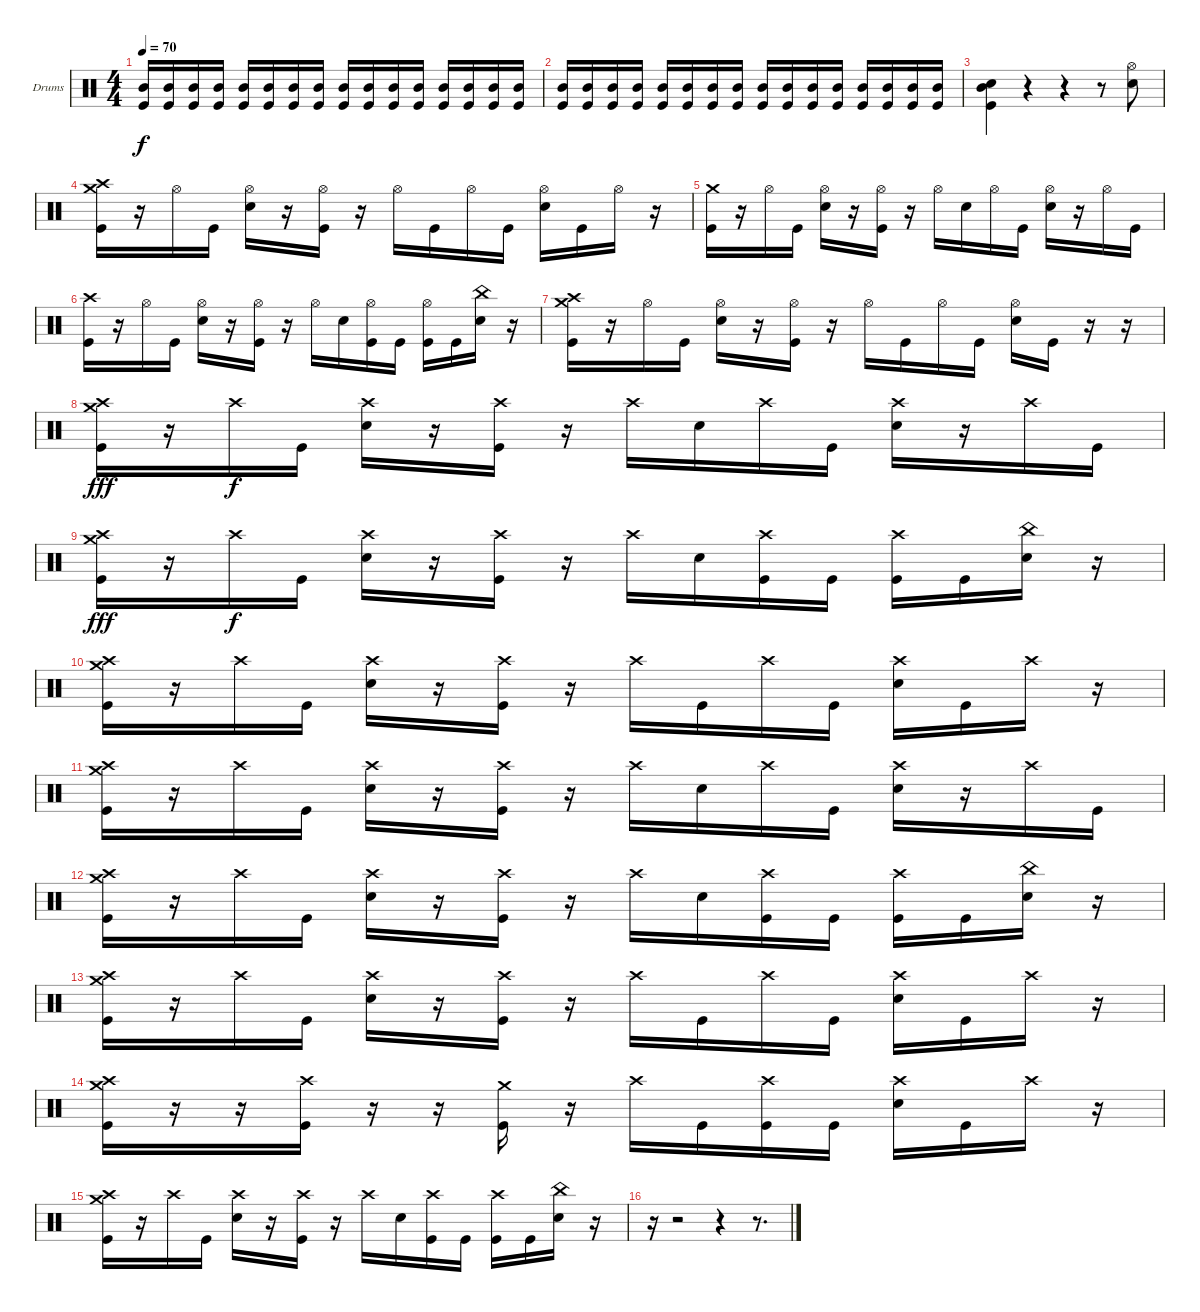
\defaultSystemsLayout 4
\bracketExtendMode groupsimilarinstruments
\firstSystemTrackNameOrientation horizontal
\otherSystemsTrackNameOrientation horizontal
\track ("" "Drums") {instrument percussion}
\staff {score}
\articulation defaults
\ts (4 4)
\tempo 70
\clef neutral
\scale
0.333333
\ks c
("Mid Tom (hit)" "Kick (hit)").16{dy f} ("Mid Tom (hit)" "Kick (hit)").16 ("Mid Tom (hit)" "Kick (hit)").16 ("Mid Tom (hit)" "Kick (hit)").16 ("Mid Tom (hit)" "Kick (hit)").16 ("Mid Tom (hit)" "Kick (hit)").16 ("Mid Tom (hit)" "Kick (hit)").16 ("Mid Tom (hit)" "Kick (hit)").16 ("Mid Tom (hit)" "Kick (hit)").16 ("Mid Tom (hit)" "Kick (hit)").16 ("Mid Tom (hit)" "Kick (hit)").16 ("Mid Tom (hit)" "Kick (hit)").16 ("Mid Tom (hit)" "Kick (hit)").16 ("Mid Tom (hit)" "Kick (hit)").16 ("Mid Tom (hit)" "Kick (hit)").16 ("Mid Tom (hit)" "Kick (hit)").16 |
\scale
0.333333 ("Mid Tom (hit)" "Kick (hit)").16 ("Mid Tom (hit)" "Kick (hit)").16 ("Mid Tom (hit)" "Kick (hit)").16 ("Mid Tom (hit)" "Kick (hit)").16 ("Mid Tom (hit)" "Kick (hit)").16 ("Mid Tom (hit)" "Kick (hit)").16 ("Mid Tom (hit)" "Kick (hit)").16 ("Mid Tom (hit)" "Kick (hit)").16 ("Mid Tom (hit)" "Kick (hit)").16 ("Mid Tom (hit)" "Kick (hit)").16 ("Mid Tom (hit)" "Kick (hit)").16 ("Mid Tom (hit)" "Kick (hit)").16 ("Mid Tom (hit)" "Kick (hit)").16 ("Mid Tom (hit)" "Kick (hit)").16 ("Mid Tom (hit)" "Kick (hit)").16 ("Mid Tom (hit)" "Kick (hit)").16 |
\scale
0.333333 ("Snare (hit) 2" "Mid Tom (hit)" "Kick (hit)").4 r.4 r.4 r.8 ("Hi-Hat (open)" "Snare (hit) 2").8 |
\scale
0.333333 ("Crash high (hit)" "Crash medium (hit)" "Kick (hit)").16 r.16 "Hi-Hat (open)".16 "Kick (hit)".16 ("Hi-Hat (open)" "Snare (hit) 2").16 r.16 ("Hi-Hat (open)" "Kick (hit)").16 r.16 "Hi-Hat (open)".16 "Kick (hit)".16 "Hi-Hat (open)".16 "Kick (hit)".16 ("Hi-Hat (open)" "Snare (hit) 2").16 "Kick (hit)".16 "Hi-Hat (open)".16 r.16 |
\scale
0.333333 ("Crash medium (hit)" "Kick (hit)").16 r.16 "Hi-Hat (open)".16 "Kick (hit)".16 ("Hi-Hat (open)" "Snare (hit) 2").16 r.16 ("Hi-Hat (open)" "Kick (hit)").16 r.16 "Hi-Hat (open)".16 "Snare (hit) 2".16 "Hi-Hat (open)".16 "Kick (hit)".16 ("Hi-Hat (open)" "Snare (hit) 2").16 r.16 "Hi-Hat (open)".16 "Kick (hit)".16 |
\scale
0.333333 ("Crash high (hit)" "Kick (hit)").16 r.16 "Hi-Hat (open)".16 "Kick (hit)".16 ("Hi-Hat (open)" "Snare (hit) 2").16 r.16 ("Hi-Hat (open)" "Kick (hit)").16 r.16 "Hi-Hat (open)".16 "Snare (hit) 2".16 ("Hi-Hat (open)" "Kick (hit)").16 "Kick (hit)".16 ("Hi-Hat (open)" "Kick (hit)").16 "Kick (hit)".16 ("China (hit)" "Snare (hit) 2").16 r.16 |
\scale
0.333333 ("Crash high (hit)" "Crash medium (hit)" "Kick (hit)").16 r.16 "Hi-Hat (open)".16 "Kick (hit)".16 ("Hi-Hat (open)" "Snare (hit) 2").16 r.16 ("Hi-Hat (open)" "Kick (hit)").16 r.16 "Hi-Hat (open)".16 "Kick (hit)".16 "Hi-Hat (open)".16 "Kick (hit)".16 ("Hi-Hat (open)" "Snare (hit) 2").16 "Kick (hit)".16 r.16 r.16 |
\scale
0.333333 ("Crash high (hit)" "Crash medium (hit)" "Kick (hit)").16{dy fff} r.16 "Crash high (hit)".16{dy f} "Kick (hit)".16 ("Crash high (hit)" "Snare (hit) 2").16 r.16 ("Crash high (hit)" "Kick (hit)").16 r.16 "Crash high (hit)".16 "Snare (hit) 2".16 "Crash high (hit)".16 "Kick (hit)".16 ("Crash high (hit)" "Snare (hit) 2").16 r.16 "Crash high (hit)".16 "Kick (hit)".16 |
\scale
0.333333 ("Crash high (hit)" "Crash medium (hit)" "Kick (hit)").16{dy fff} r.16 "Crash high (hit)".16{dy f} "Kick (hit)".16 ("Crash high (hit)" "Snare (hit) 2").16 r.16 ("Crash high (hit)" "Kick (hit)").16 r.16 "Crash high (hit)".16 "Snare (hit) 2".16 ("Crash high (hit)" "Kick (hit)").16 "Kick (hit)".16 ("Crash high (hit)" "Kick (hit)").16 "Kick (hit)".16 ("China (hit)" "Snare (hit) 2").16 r.16 |
\scale
0.333333 ("Crash high (hit)" "Crash medium (hit)" "Kick (hit)").16 r.16 "Crash high (hit)".16 "Kick (hit)".16 ("Crash high (hit)" "Snare (hit) 2").16 r.16 ("Crash high (hit)" "Kick (hit)").16 r.16 "Crash high (hit)".16 "Kick (hit)".16 "Crash high (hit)".16 "Kick (hit)".16 ("Crash high (hit)" "Snare (hit) 2").16 "Kick (hit)".16 "Crash high (hit)".16 r.16 |
\scale
0.333333 ("Crash high (hit)" "Crash medium (hit)" "Kick (hit)").16 r.16 "Crash high (hit)".16 "Kick (hit)".16 ("Crash high (hit)" "Snare (hit) 2").16 r.16 ("Crash high (hit)" "Kick (hit)").16 r.16 "Crash high (hit)".16 "Snare (hit) 2".16 "Crash high (hit)".16 "Kick (hit)".16 ("Crash high (hit)" "Snare (hit) 2").16 r.16 "Crash high (hit)".16 "Kick (hit)".16 |
\scale
0.333333 ("Crash high (hit)" "Crash medium (hit)" "Kick (hit)").16 r.16 "Crash high (hit)".16 "Kick (hit)".16 ("Crash high (hit)" "Snare (hit) 2").16 r.16 ("Crash high (hit)" "Kick (hit)").16 r.16 "Crash high (hit)".16 "Snare (hit) 2".16 ("Crash high (hit)" "Kick (hit)").16 "Kick (hit)".16 ("Crash high (hit)" "Kick (hit)").16 "Kick (hit)".16 ("China (hit)" "Snare (hit) 2").16 r.16 |
\scale
0.333333 ("Crash high (hit)" "Crash medium (hit)" "Kick (hit)").16 r.16 "Crash high (hit)".16 "Kick (hit)".16 ("Crash high (hit)" "Snare (hit) 2").16 r.16 ("Crash high (hit)" "Kick (hit)").16 r.16 "Crash high (hit)".16 "Kick (hit)".16 "Crash high (hit)".16 "Kick (hit)".16 ("Crash high (hit)" "Snare (hit) 2").16 "Kick (hit)".16 "Crash high (hit)".16 r.16 |
\scale
0.333333 ("Crash high (hit)" "Crash medium (hit)" "Kick (hit)").16 r.16 r.16 ("Crash high (hit)" "Kick (hit)").16 r.16 r.16 ("Crash medium (hit)" "Kick (hit)").16 r.16 "Crash high (hit)".16 "Kick (hit)".16 ("Crash high (hit)" "Kick (hit)").16 "Kick (hit)".16 ("Crash high (hit)" "Snare (hit) 2").16 "Kick (hit)".16 "Crash high (hit)".16 r.16 |
\scale
0.333333 ("Crash high (hit)" "Crash medium (hit)" "Kick (hit)").16 r.16 "Crash high (hit)".16 "Kick (hit)".16 ("Crash high (hit)" "Snare (hit) 2").16 r.16 ("Crash high (hit)" "Kick (hit)").16 r.16 "Crash high (hit)".16 "Snare (hit) 2".16 ("Crash high (hit)" "Kick (hit)").16 "Kick (hit)".16 ("Crash high (hit)" "Kick (hit)").16 "Kick (hit)".16 ("China (hit)" "Snare (hit) 2").16 r.16 |
r.16 r.2 r.4 r.8{d}
